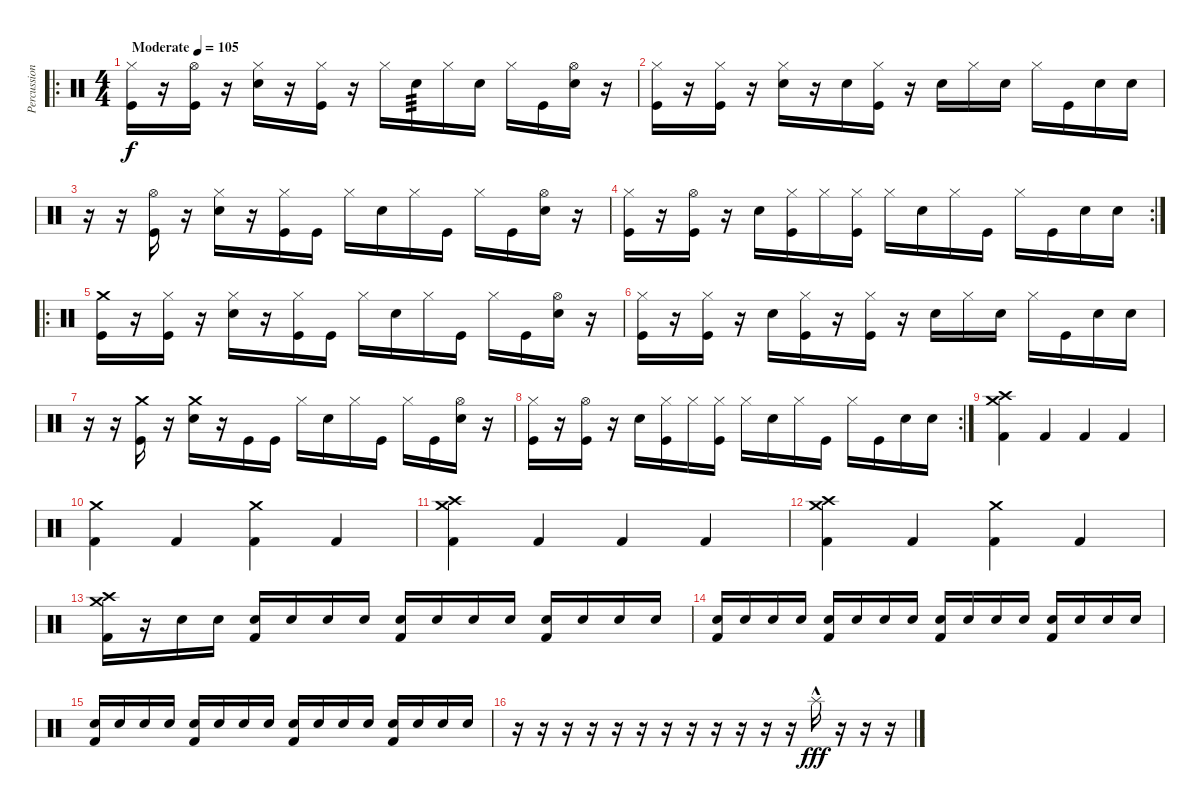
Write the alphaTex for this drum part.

\track ("Percussion" "Percussion") {instrument percussion}
\staff {score}
\articulation defaults
\ro
\ts (4 4)
\tempo (105 "Moderate")
\clef neutral
\ks c
("Hi-Hat (closed)" "Kick (hit)").16{dy f} r.16 ("Hi-Hat (open)" "Kick (hit)").16 r.16 ("Hi-Hat (closed)" "Electric Snare (hit)").16 r.16 ("Hi-Hat (closed)" "Kick (hit)").16 r.16 "Hi-Hat (closed)".16 "Electric Snare (hit)".16{tp 3} "Hi-Hat (closed)".16 "Electric Snare (hit)".16 "Hi-Hat (closed)".16 "Kick (hit)".16 ("Hi-Hat (open)" "Electric Snare (hit)").16 r.16 |
("Hi-Hat (closed)" "Kick (hit)").16 r.16 ("Hi-Hat (closed)" "Kick (hit)").16 r.16 ("Hi-Hat (closed)" "Electric Snare (hit)").16 r.16 "Electric Snare (hit)".16 ("Hi-Hat (closed)" "Kick (hit)").16 r.16 "Electric Snare (hit)".16 "Hi-Hat (closed)".16 "Electric Snare (hit)".16 "Hi-Hat (closed)".16 "Kick (hit)".16 "Electric Snare (hit)".16 "Electric Snare (hit)".16 |
r.16 r.16 ("Hi-Hat (open)" "Kick (hit)").16 r.16 ("Hi-Hat (closed)" "Electric Snare (hit)").16 r.16 ("Hi-Hat (closed)" "Kick (hit)").16 "Kick (hit)".16 "Hi-Hat (closed)".16 "Electric Snare (hit)".16 "Hi-Hat (closed)".16 "Kick (hit)".16 "Hi-Hat (closed)".16 "Kick (hit)".16 ("Hi-Hat (open)" "Electric Snare (hit)").16 r.16 |
\rc 2
("Hi-Hat (closed)" "Kick (hit)").16 r.16 ("Hi-Hat (open)" "Kick (hit)").16 r.16 "Electric Snare (hit)".16 ("Hi-Hat (closed)" "Kick (hit)").16 "Hi-Hat (closed)".16 ("Hi-Hat (closed)" "Kick (hit)").16 "Hi-Hat (closed)".16 "Electric Snare (hit)".16 "Hi-Hat (closed)".16 "Kick (hit)".16 "Hi-Hat (closed)".16 "Kick (hit)".16 "Electric Snare (hit)".16 "Electric Snare (hit)".16 |
\ro
("Crash medium (hit)" "Kick (hit)").16 r.16 ("Hi-Hat (closed)" "Kick (hit)").16 r.16 ("Hi-Hat (closed)" "Electric Snare (hit)").16 r.16 ("Hi-Hat (closed)" "Kick (hit)").16 "Kick (hit)".16 "Hi-Hat (closed)".16 "Electric Snare (hit)".16 "Hi-Hat (closed)".16 "Kick (hit)".16 "Hi-Hat (closed)".16 "Kick (hit)".16 ("Hi-Hat (open)" "Electric Snare (hit)").16 r.16 |
("Hi-Hat (closed)" "Kick (hit)").16 r.16 ("Hi-Hat (closed)" "Kick (hit)").16 r.16 "Electric Snare (hit)".16 ("Hi-Hat (closed)" "Kick (hit)").16 r.16 ("Hi-Hat (closed)" "Kick (hit)").16 r.16 "Electric Snare (hit)".16 "Hi-Hat (closed)".16 "Electric Snare (hit)".16 "Hi-Hat (closed)".16 "Kick (hit)".16 "Electric Snare (hit)".16 "Electric Snare (hit)".16 |
r.16 r.16 ("Crash medium (hit)" "Kick (hit)").16 r.16 ("Crash medium (hit)" "Electric Snare (hit)").16 r.16 "Kick (hit)".16 "Kick (hit)".16 "Hi-Hat (closed)".16 "Electric Snare (hit)".16 "Hi-Hat (closed)".16 "Kick (hit)".16 "Hi-Hat (closed)".16 "Kick (hit)".16 ("Hi-Hat (open)" "Electric Snare (hit)").16 r.16 |
\rc 2
("Hi-Hat (closed)" "Kick (hit)").16 r.16 ("Hi-Hat (open)" "Kick (hit)").16 r.16 "Electric Snare (hit)".16 ("Hi-Hat (closed)" "Kick (hit)").16 "Hi-Hat (closed)".16 ("Hi-Hat (closed)" "Kick (hit)").16 "Hi-Hat (closed)".16 "Electric Snare (hit)".16 "Hi-Hat (closed)".16 "Kick (hit)".16 "Hi-Hat (closed)".16 "Kick (hit)".16 "Electric Snare (hit)".16 "Electric Snare (hit)".16 |
("Crash medium (hit)" "Crash high (hit)" "Kick (hit) 2").4 "Kick (hit) 2".4 "Kick (hit) 2".4 "Kick (hit) 2".4 |
("Crash medium (hit)" "Kick (hit) 2").4 "Kick (hit) 2".4 ("Crash medium (hit)" "Kick (hit) 2").4 "Kick (hit) 2".4 |
("Crash medium (hit)" "Crash high (hit)" "Kick (hit) 2").4 "Kick (hit) 2".4 "Kick (hit) 2".4 "Kick (hit) 2".4 |
("Crash medium (hit)" "Crash high (hit)" "Kick (hit) 2").4 "Kick (hit) 2".4 ("Crash medium (hit)" "Kick (hit) 2").4 "Kick (hit) 2".4 |
("Crash medium (hit)" "Crash high (hit)" "Kick (hit) 2").16 r.16 "Electric Snare (hit)".16 "Electric Snare (hit)".16 ("Kick (hit) 2" "Electric Snare (hit)").16 "Electric Snare (hit)".16 "Electric Snare (hit)".16 "Electric Snare (hit)".16 ("Kick (hit) 2" "Electric Snare (hit)").16 "Electric Snare (hit)".16 "Electric Snare (hit)".16 "Electric Snare (hit)".16 ("Kick (hit) 2" "Electric Snare (hit)").16 "Electric Snare (hit)".16 "Electric Snare (hit)".16 "Electric Snare (hit)".16 |
("Kick (hit) 2" "Electric Snare (hit)").16 "Electric Snare (hit)".16 "Electric Snare (hit)".16 "Electric Snare (hit)".16 ("Kick (hit) 2" "Electric Snare (hit)").16 "Electric Snare (hit)".16 "Electric Snare (hit)".16 "Electric Snare (hit)".16 ("Kick (hit) 2" "Electric Snare (hit)").16 "Electric Snare (hit)".16 "Electric Snare (hit)".16 "Electric Snare (hit)".16 ("Kick (hit) 2" "Electric Snare (hit)").16 "Electric Snare (hit)".16 "Electric Snare (hit)".16 "Electric Snare (hit)".16 |
("Kick (hit) 2" "Electric Snare (hit)").16 "Electric Snare (hit)".16 "Electric Snare (hit)".16 "Electric Snare (hit)".16 ("Kick (hit) 2" "Electric Snare (hit)").16 "Electric Snare (hit)".16 "Electric Snare (hit)".16 "Electric Snare (hit)".16 ("Kick (hit) 2" "Electric Snare (hit)").16 "Electric Snare (hit)".16 "Electric Snare (hit)".16 "Electric Snare (hit)".16 ("Kick (hit) 2" "Electric Snare (hit)").16 "Electric Snare (hit)".16 "Electric Snare (hit)".16 "Electric Snare (hit)".16 |
r.16 r.16 r.16 r.16 r.16 r.16 r.16 r.16 r.16 r.16 r.16 r.16 "Splash (hit)"{hac}.16{dy fff} r.16 r.16 r.16
